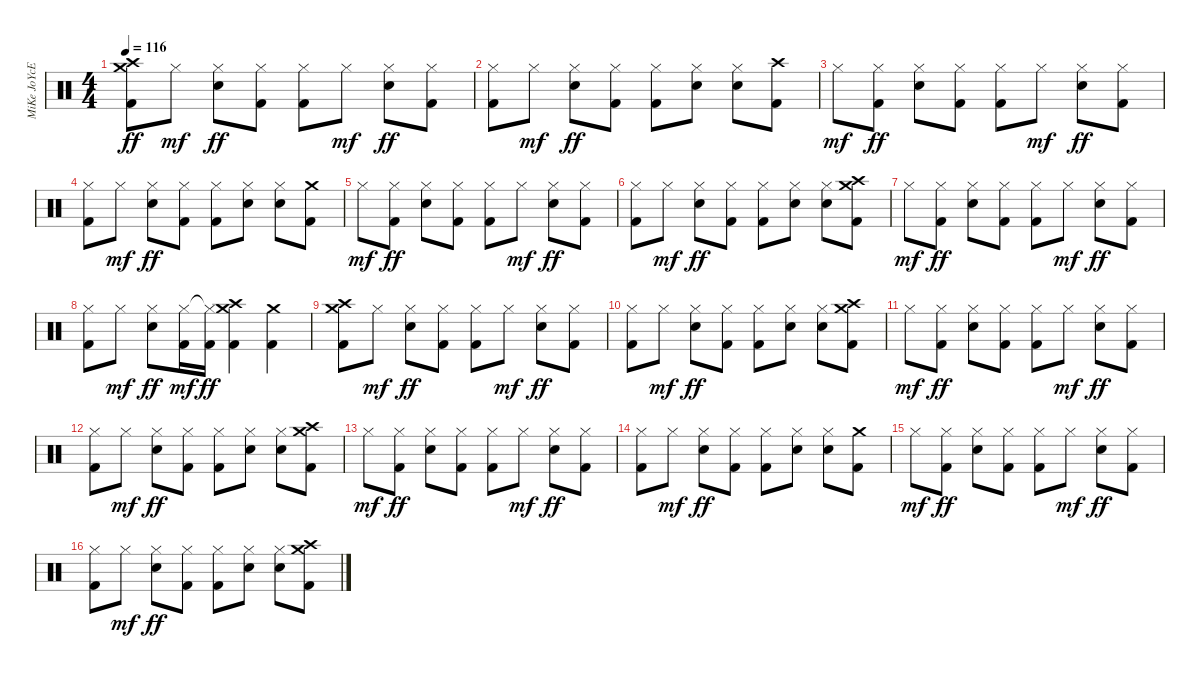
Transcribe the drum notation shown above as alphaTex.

\track ("MiKe JoYcE" "MiKe JoYcE") {instrument percussion}
\staff {score}
\articulation defaults
\ts (4 4)
\tempo 116
\clef neutral
\ks c
("Crash high (hit)" "Crash medium (hit)" "Kick (hit) 2").8{dy ff} "Hi-Hat (closed)".8{dy mf} ("Hi-Hat (closed)" "Electric Snare (hit)").8{dy ff} ("Hi-Hat (closed)" "Kick (hit) 2").8 ("Hi-Hat (closed)" "Kick (hit) 2").8 "Hi-Hat (closed)".8{dy mf} ("Hi-Hat (closed)" "Electric Snare (hit)").8{dy ff} ("Hi-Hat (closed)" "Kick (hit) 2").8 |
("Hi-Hat (closed)" "Kick (hit) 2").8 "Hi-Hat (closed)".8{dy mf} ("Hi-Hat (closed)" "Electric Snare (hit)").8{dy ff} ("Hi-Hat (closed)" "Kick (hit) 2").8 ("Hi-Hat (closed)" "Kick (hit) 2").8 ("Hi-Hat (closed)" "Electric Snare (hit)").8 ("Hi-Hat (closed)" "Electric Snare (hit)").8 ("Crash high (hit)" "Kick (hit) 2").8 |
"Hi-Hat (closed)".8{dy mf} ("Hi-Hat (closed)" "Kick (hit) 2").8{dy ff} ("Hi-Hat (closed)" "Electric Snare (hit)").8 ("Hi-Hat (closed)" "Kick (hit) 2").8 ("Hi-Hat (closed)" "Kick (hit) 2").8 "Hi-Hat (closed)".8{dy mf} ("Hi-Hat (closed)" "Electric Snare (hit)").8{dy ff} ("Hi-Hat (closed)" "Kick (hit) 2").8 |
("Hi-Hat (closed)" "Kick (hit) 2").8 "Hi-Hat (closed)".8{dy mf} ("Hi-Hat (closed)" "Electric Snare (hit)").8{dy ff} ("Hi-Hat (closed)" "Kick (hit) 2").8 ("Hi-Hat (closed)" "Kick (hit) 2").8 ("Hi-Hat (closed)" "Electric Snare (hit)").8 ("Hi-Hat (closed)" "Electric Snare (hit)").8 ("Crash medium (hit)" "Kick (hit) 2").8 |
"Hi-Hat (closed)".8{dy mf} ("Hi-Hat (closed)" "Kick (hit) 2").8{dy ff} ("Hi-Hat (closed)" "Electric Snare (hit)").8 ("Hi-Hat (closed)" "Kick (hit) 2").8 ("Hi-Hat (closed)" "Kick (hit) 2").8 "Hi-Hat (closed)".8{dy mf} ("Hi-Hat (closed)" "Electric Snare (hit)").8{dy ff} ("Hi-Hat (closed)" "Kick (hit) 2").8 |
("Hi-Hat (closed)" "Kick (hit) 2").8 "Hi-Hat (closed)".8{dy mf} ("Hi-Hat (closed)" "Electric Snare (hit)").8{dy ff} ("Hi-Hat (closed)" "Kick (hit) 2").8 ("Hi-Hat (closed)" "Kick (hit) 2").8 ("Hi-Hat (closed)" "Electric Snare (hit)").8 ("Hi-Hat (closed)" "Electric Snare (hit)").8 ("Crash high (hit)" "Crash medium (hit)" "Kick (hit) 2").8 |
"Hi-Hat (closed)".8{dy mf} ("Hi-Hat (closed)" "Kick (hit) 2").8{dy ff} ("Hi-Hat (closed)" "Electric Snare (hit)").8 ("Hi-Hat (closed)" "Kick (hit) 2").8 ("Hi-Hat (closed)" "Kick (hit) 2").8 "Hi-Hat (closed)".8{dy mf} ("Hi-Hat (closed)" "Electric Snare (hit)").8{dy ff} ("Hi-Hat (closed)" "Kick (hit) 2").8 |
("Hi-Hat (closed)" "Kick (hit) 2").8 "Hi-Hat (closed)".8{dy mf} ("Hi-Hat (closed)" "Electric Snare (hit)").8{dy ff} ("Hi-Hat (closed)" "Kick (hit) 2").16{dy mf} ("Hi-Hat (closed)"{t} "Kick (hit) 2").16{dy ff} ("Crash high (hit)" "Crash medium (hit)" "Kick (hit) 2").4 ("Crash medium (hit)" "Kick (hit) 2").4 |
("Crash high (hit)" "Crash medium (hit)" "Kick (hit) 2").8 "Hi-Hat (closed)".8{dy mf} ("Hi-Hat (closed)" "Electric Snare (hit)").8{dy ff} ("Hi-Hat (closed)" "Kick (hit) 2").8 ("Hi-Hat (closed)" "Kick (hit) 2").8 "Hi-Hat (closed)".8{dy mf} ("Hi-Hat (closed)" "Electric Snare (hit)").8{dy ff} ("Hi-Hat (closed)" "Kick (hit) 2").8 |
("Hi-Hat (closed)" "Kick (hit) 2").8 "Hi-Hat (closed)".8{dy mf} ("Hi-Hat (closed)" "Electric Snare (hit)").8{dy ff} ("Hi-Hat (closed)" "Kick (hit) 2").8 ("Hi-Hat (closed)" "Kick (hit) 2").8 ("Hi-Hat (closed)" "Electric Snare (hit)").8 ("Hi-Hat (closed)" "Electric Snare (hit)").8 ("Crash high (hit)" "Crash medium (hit)" "Kick (hit) 2").8 |
"Hi-Hat (closed)".8{dy mf} ("Hi-Hat (closed)" "Kick (hit) 2").8{dy ff} ("Hi-Hat (closed)" "Electric Snare (hit)").8 ("Hi-Hat (closed)" "Kick (hit) 2").8 ("Hi-Hat (closed)" "Kick (hit) 2").8 "Hi-Hat (closed)".8{dy mf} ("Hi-Hat (closed)" "Electric Snare (hit)").8{dy ff} ("Hi-Hat (closed)" "Kick (hit) 2").8 |
("Hi-Hat (closed)" "Kick (hit) 2").8 "Hi-Hat (closed)".8{dy mf} ("Hi-Hat (closed)" "Electric Snare (hit)").8{dy ff} ("Hi-Hat (closed)" "Kick (hit) 2").8 ("Hi-Hat (closed)" "Kick (hit) 2").8 ("Hi-Hat (closed)" "Electric Snare (hit)").8 ("Hi-Hat (closed)" "Electric Snare (hit)").8 ("Crash medium (hit)" "Crash high (hit)" "Kick (hit) 2").8 |
"Hi-Hat (closed)".8{dy mf} ("Hi-Hat (closed)" "Kick (hit) 2").8{dy ff} ("Hi-Hat (closed)" "Electric Snare (hit)").8 ("Hi-Hat (closed)" "Kick (hit) 2").8 ("Hi-Hat (closed)" "Kick (hit) 2").8 "Hi-Hat (closed)".8{dy mf} ("Hi-Hat (closed)" "Electric Snare (hit)").8{dy ff} ("Hi-Hat (closed)" "Kick (hit) 2").8 |
("Hi-Hat (closed)" "Kick (hit) 2").8 "Hi-Hat (closed)".8{dy mf} ("Hi-Hat (closed)" "Electric Snare (hit)").8{dy ff} ("Hi-Hat (closed)" "Kick (hit) 2").8 ("Hi-Hat (closed)" "Kick (hit) 2").8 ("Hi-Hat (closed)" "Electric Snare (hit)").8 ("Hi-Hat (closed)" "Electric Snare (hit)").8 ("Crash medium (hit)" "Kick (hit) 2").8 |
"Hi-Hat (closed)".8{dy mf} ("Hi-Hat (closed)" "Kick (hit) 2").8{dy ff} ("Hi-Hat (closed)" "Electric Snare (hit)").8 ("Hi-Hat (closed)" "Kick (hit) 2").8 ("Hi-Hat (closed)" "Kick (hit) 2").8 "Hi-Hat (closed)".8{dy mf} ("Hi-Hat (closed)" "Electric Snare (hit)").8{dy ff} ("Hi-Hat (closed)" "Kick (hit) 2").8 |
("Hi-Hat (closed)" "Kick (hit) 2").8 "Hi-Hat (closed)".8{dy mf} ("Hi-Hat (closed)" "Electric Snare (hit)").8{dy ff} ("Hi-Hat (closed)" "Kick (hit) 2").8 ("Hi-Hat (closed)" "Kick (hit) 2").8 ("Hi-Hat (closed)" "Electric Snare (hit)").8 ("Hi-Hat (closed)" "Electric Snare (hit)").8 ("Crash high (hit)" "Crash medium (hit)" "Kick (hit) 2").8
